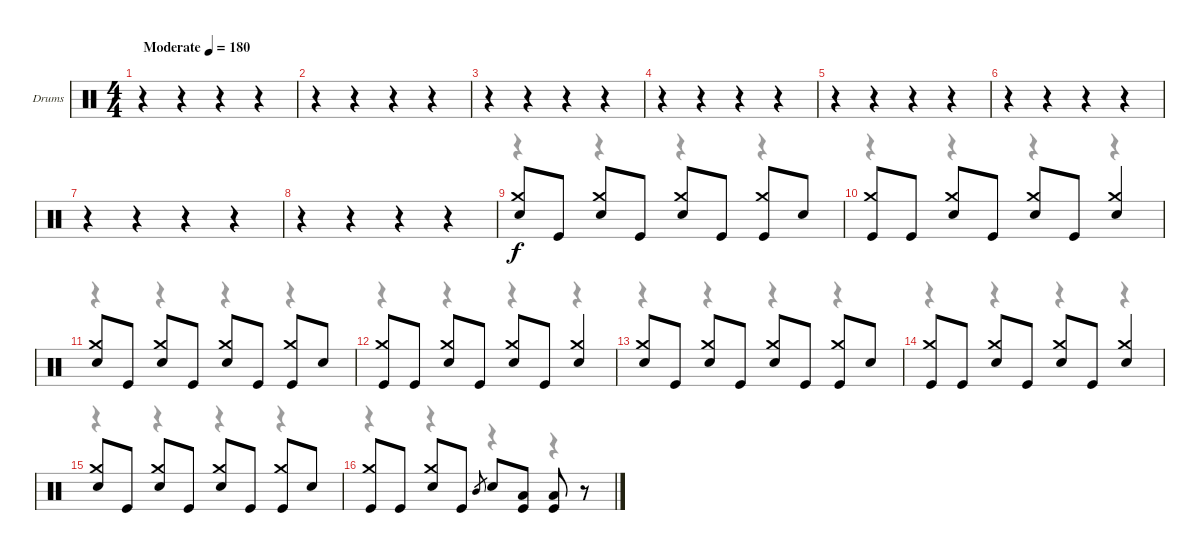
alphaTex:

\bracketExtendMode groupsimilarinstruments
\firstSystemTrackNameOrientation horizontal
\otherSystemsTrackNameOrientation horizontal
\track ("Drumkit" "Drums") {instrument percussion}
\staff {score}
\articulation defaults
\voice
\ts (4 4)
\beaming (8 2 2 2 2)
\tempo (180 "Moderate")
\clef neutral
\ks c
r.4{dy f} r.4 r.4 r.4 |
r.4 r.4 r.4 r.4 |
r.4 r.4 r.4 r.4 |
r.4 r.4 r.4 r.4 |
r.4 r.4 r.4 r.4 |
r.4 r.4 r.4 r.4 |
r.4 r.4 r.4 r.4 |
r.4 r.4 r.4 r.4 |
("Crash medium (hit)" "Snare (hit) 2").8 "Kick (hit)".8 ("Crash medium (hit)" "Snare (hit) 2").8 "Kick (hit)".8 ("Crash medium (hit)" "Snare (hit) 2").8 "Kick (hit)".8 ("Crash medium (hit)" "Kick (hit)").8 "Snare (hit) 2".8 |
("Crash medium (hit)" "Kick (hit)").8 "Kick (hit)".8 ("Crash medium (hit)" "Snare (hit) 2").8 "Kick (hit)".8 ("Crash medium (hit)" "Snare (hit) 2").8 "Kick (hit)".8 ("Crash medium (hit)" "Snare (hit) 2").4 |
("Crash medium (hit)" "Snare (hit) 2").8 "Kick (hit)".8 ("Crash medium (hit)" "Snare (hit) 2").8 "Kick (hit)".8 ("Crash medium (hit)" "Snare (hit) 2").8 "Kick (hit)".8 ("Crash medium (hit)" "Kick (hit)").8 "Snare (hit) 2".8 |
("Crash medium (hit)" "Kick (hit)").8 "Kick (hit)".8 ("Crash medium (hit)" "Snare (hit) 2").8 "Kick (hit)".8 ("Crash medium (hit)" "Snare (hit) 2").8 "Kick (hit)".8 ("Crash medium (hit)" "Snare (hit) 2").4 |
("Crash medium (hit)" "Snare (hit) 2").8 "Kick (hit)".8 ("Crash medium (hit)" "Snare (hit) 2").8 "Kick (hit)".8 ("Crash medium (hit)" "Snare (hit) 2").8 "Kick (hit)".8 ("Crash medium (hit)" "Kick (hit)").8 "Snare (hit) 2".8 |
("Crash medium (hit)" "Kick (hit)").8 "Kick (hit)".8 ("Crash medium (hit)" "Snare (hit) 2").8 "Kick (hit)".8 ("Crash medium (hit)" "Snare (hit) 2").8 "Kick (hit)".8 ("Crash medium (hit)" "Snare (hit) 2").4 |
("Crash medium (hit)" "Snare (hit) 2").8 "Kick (hit)".8 ("Crash medium (hit)" "Snare (hit) 2").8 "Kick (hit)".8 ("Crash medium (hit)" "Snare (hit) 2").8 "Kick (hit)".8 ("Crash medium (hit)" "Kick (hit)").8 "Snare (hit) 2".8 |
("Crash medium (hit)" "Kick (hit)").8 "Kick (hit)".8 ("Crash medium (hit)" "Snare (hit) 2").8 "Kick (hit)".8 "Mid Tom (hit)".8{gr} "Snare (hit) 2".8 ("Low Tom (hit)" "Kick (hit)").8 ("Low Tom (hit)" "Kick (hit)").8 r.8
\voice
\clef neutral
\ottava regular
\simile none
\ks c
r.4{dy mf} r.4 r.4 r.4 |
r.4 r.4 r.4 r.4 |
r.4 r.4 r.4 r.4 |
r.4 r.4 r.4 r.4 |
r.4 r.4 r.4 r.4 |
r.4 r.4 r.4 r.4 |
r.4 r.4 r.4 r.4 |
r.4 r.4 r.4 r.4 |
r.4 r.4 r.4 r.4 |
r.4 r.4 r.4 r.4 |
r.4 r.4 r.4 r.4 |
r.4 r.4 r.4 r.4 |
r.4 r.4 r.4 r.4 |
r.4 r.4 r.4 r.4 |
r.4 r.4 r.4 r.4 |
r.4 r.4 r.4 r.4
